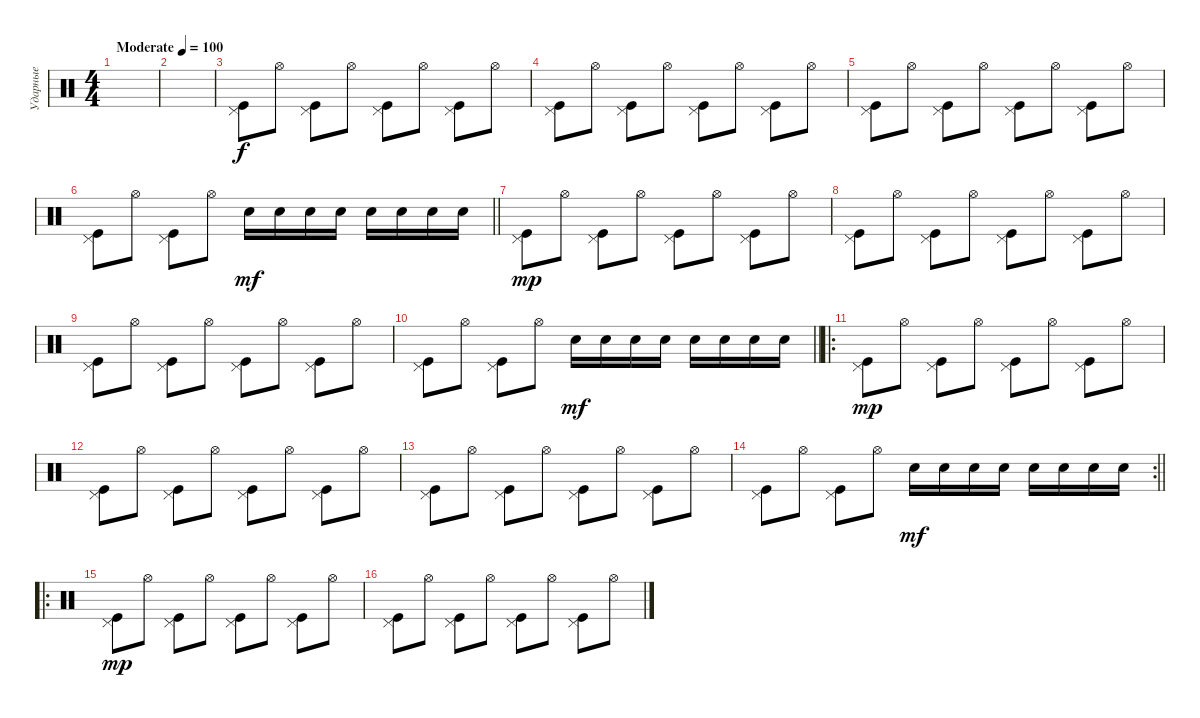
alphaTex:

\track ("Ударные" "Ударные") {instrument percussion}
\staff {score}
\articulation defaults
\ts (4 4)
\tempo (100 "Moderate")
\clef neutral
\ks c
|
|
("Pedal Hi-Hat (hit)" "Kick (hit)").8 "Hi-Hat (open)".8 ("Pedal Hi-Hat (hit)" "Kick (hit)").8 "Hi-Hat (open)".8 ("Pedal Hi-Hat (hit)" "Kick (hit)").8 "Hi-Hat (open)".8 ("Pedal Hi-Hat (hit)" "Kick (hit)").8 "Hi-Hat (open)".8 |
("Pedal Hi-Hat (hit)" "Kick (hit)").8 "Hi-Hat (open)".8 ("Pedal Hi-Hat (hit)" "Kick (hit)").8 "Hi-Hat (open)".8 ("Pedal Hi-Hat (hit)" "Kick (hit)").8 "Hi-Hat (open)".8 ("Pedal Hi-Hat (hit)" "Kick (hit)").8 "Hi-Hat (open)".8 |
("Pedal Hi-Hat (hit)" "Kick (hit)").8 "Hi-Hat (open)".8 ("Pedal Hi-Hat (hit)" "Kick (hit)").8 "Hi-Hat (open)".8 ("Pedal Hi-Hat (hit)" "Kick (hit)").8 "Hi-Hat (open)".8 ("Pedal Hi-Hat (hit)" "Kick (hit)").8 "Hi-Hat (open)".8 |
\barLineRight lightlight
("Pedal Hi-Hat (hit)" "Kick (hit)").8 "Hi-Hat (open)".8 ("Pedal Hi-Hat (hit)" "Kick (hit)").8 "Hi-Hat (open)".8 "Electric Snare (hit)".16{dy mf} "Electric Snare (hit)".16 "Electric Snare (hit)".16 "Electric Snare (hit)".16 "Electric Snare (hit)".16 "Electric Snare (hit)".16 "Electric Snare (hit)".16 "Electric Snare (hit)".16 |
("Pedal Hi-Hat (hit)" "Kick (hit)").8{dy mp} "Hi-Hat (open)".8 ("Pedal Hi-Hat (hit)" "Kick (hit)").8 "Hi-Hat (open)".8 ("Pedal Hi-Hat (hit)" "Kick (hit)").8 "Hi-Hat (open)".8 ("Pedal Hi-Hat (hit)" "Kick (hit)").8 "Hi-Hat (open)".8 |
("Pedal Hi-Hat (hit)" "Kick (hit)").8 "Hi-Hat (open)".8 ("Pedal Hi-Hat (hit)" "Kick (hit)").8 "Hi-Hat (open)".8 ("Pedal Hi-Hat (hit)" "Kick (hit)").8 "Hi-Hat (open)".8 ("Pedal Hi-Hat (hit)" "Kick (hit)").8 "Hi-Hat (open)".8 |
("Pedal Hi-Hat (hit)" "Kick (hit)").8 "Hi-Hat (open)".8 ("Pedal Hi-Hat (hit)" "Kick (hit)").8 "Hi-Hat (open)".8 ("Pedal Hi-Hat (hit)" "Kick (hit)").8 "Hi-Hat (open)".8 ("Pedal Hi-Hat (hit)" "Kick (hit)").8 "Hi-Hat (open)".8 |
\barLineRight lightlight
("Pedal Hi-Hat (hit)" "Kick (hit)").8 "Hi-Hat (open)".8 ("Pedal Hi-Hat (hit)" "Kick (hit)").8 "Hi-Hat (open)".8 "Electric Snare (hit)".16{dy mf} "Electric Snare (hit)".16 "Electric Snare (hit)".16 "Electric Snare (hit)".16 "Electric Snare (hit)".16 "Electric Snare (hit)".16 "Electric Snare (hit)".16 "Electric Snare (hit)".16 |
\ro
("Pedal Hi-Hat (hit)" "Kick (hit)").8{dy mp} "Hi-Hat (open)".8 ("Pedal Hi-Hat (hit)" "Kick (hit)").8 "Hi-Hat (open)".8 ("Pedal Hi-Hat (hit)" "Kick (hit)").8 "Hi-Hat (open)".8 ("Pedal Hi-Hat (hit)" "Kick (hit)").8 "Hi-Hat (open)".8 |
("Pedal Hi-Hat (hit)" "Kick (hit)").8 "Hi-Hat (open)".8 ("Pedal Hi-Hat (hit)" "Kick (hit)").8 "Hi-Hat (open)".8 ("Pedal Hi-Hat (hit)" "Kick (hit)").8 "Hi-Hat (open)".8 ("Pedal Hi-Hat (hit)" "Kick (hit)").8 "Hi-Hat (open)".8 |
("Pedal Hi-Hat (hit)" "Kick (hit)").8 "Hi-Hat (open)".8 ("Pedal Hi-Hat (hit)" "Kick (hit)").8 "Hi-Hat (open)".8 ("Pedal Hi-Hat (hit)" "Kick (hit)").8 "Hi-Hat (open)".8 ("Pedal Hi-Hat (hit)" "Kick (hit)").8 "Hi-Hat (open)".8 |
\rc 2
\barLineRight lightlight
("Pedal Hi-Hat (hit)" "Kick (hit)").8 "Hi-Hat (open)".8 ("Pedal Hi-Hat (hit)" "Kick (hit)").8 "Hi-Hat (open)".8 "Electric Snare (hit)".16{dy mf} "Electric Snare (hit)".16 "Electric Snare (hit)".16 "Electric Snare (hit)".16 "Electric Snare (hit)".16 "Electric Snare (hit)".16 "Electric Snare (hit)".16 "Electric Snare (hit)".16 |
\ro
("Pedal Hi-Hat (hit)" "Kick (hit)").8{dy mp} "Hi-Hat (open)".8 ("Pedal Hi-Hat (hit)" "Kick (hit)").8 "Hi-Hat (open)".8 ("Pedal Hi-Hat (hit)" "Kick (hit)").8 "Hi-Hat (open)".8 ("Pedal Hi-Hat (hit)" "Kick (hit)").8 "Hi-Hat (open)".8 |
("Pedal Hi-Hat (hit)" "Kick (hit)").8 "Hi-Hat (open)".8 ("Pedal Hi-Hat (hit)" "Kick (hit)").8 "Hi-Hat (open)".8 ("Pedal Hi-Hat (hit)" "Kick (hit)").8 "Hi-Hat (open)".8 ("Pedal Hi-Hat (hit)" "Kick (hit)").8 "Hi-Hat (open)".8
